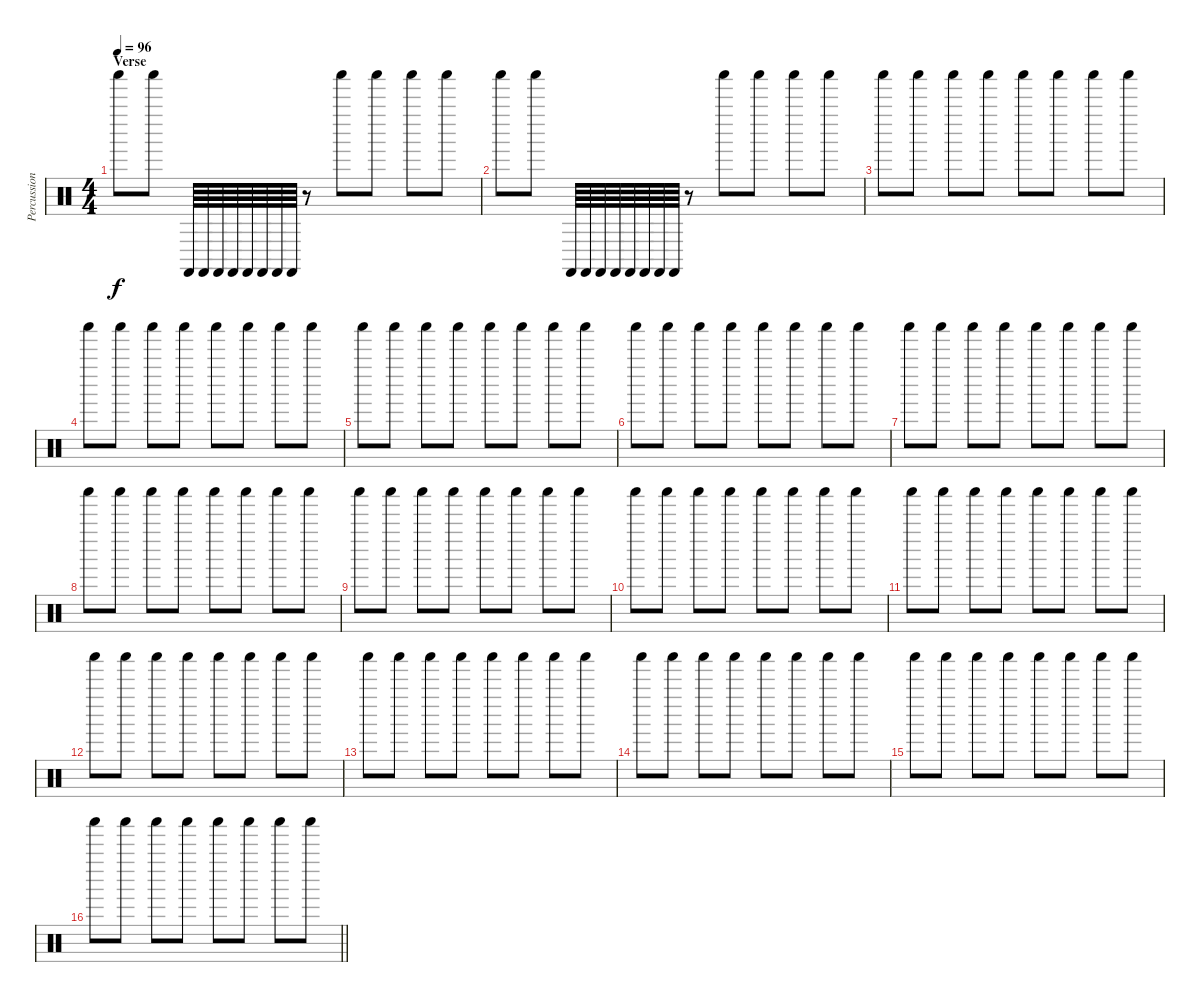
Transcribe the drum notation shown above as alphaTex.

\track ("Percussion" "Percussion") {instrument percussion}
\staff {score}
\articulation defaults
\ts (4 4)
\section ("" "Verse")
\tempo 96
\clef neutral
\ks c "Shaker (hit)".8{dy f} "Shaker (hit)".8 "Castanets (hit)".64 "Castanets (hit)".64 "Castanets (hit)".64 "Castanets (hit)".64 "Castanets (hit)".64 "Castanets (hit)".64 "Castanets (hit)".64 "Castanets (hit)".64
r.8 "Shaker (hit)".8 "Shaker (hit)".8 "Shaker (hit)".8 "Shaker (hit)".8 |
"Shaker (hit)".8 "Shaker (hit)".8 "Castanets (hit)".64 "Castanets (hit)".64 "Castanets (hit)".64 "Castanets (hit)".64 "Castanets (hit)".64 "Castanets (hit)".64 "Castanets (hit)".64 "Castanets (hit)".64 r.8 "Shaker (hit)".8 "Shaker (hit)".8 "Shaker (hit)".8 "Shaker (hit)".8 |
"Shaker (hit)".8 "Shaker (hit)".8 "Shaker (hit)".8 "Shaker (hit)".8 "Shaker (hit)".8 "Shaker (hit)".8 "Shaker (hit)".8 "Shaker (hit)".8 |
"Shaker (hit)".8 "Shaker (hit)".8 "Shaker (hit)".8 "Shaker (hit)".8 "Shaker (hit)".8 "Shaker (hit)".8 "Shaker (hit)".8 "Shaker (hit)".8 |
"Shaker (hit)".8 "Shaker (hit)".8 "Shaker (hit)".8 "Shaker (hit)".8 "Shaker (hit)".8 "Shaker (hit)".8 "Shaker (hit)".8 "Shaker (hit)".8 |
"Shaker (hit)".8 "Shaker (hit)".8 "Shaker (hit)".8 "Shaker (hit)".8 "Shaker (hit)".8 "Shaker (hit)".8 "Shaker (hit)".8 "Shaker (hit)".8 |
"Shaker (hit)".8 "Shaker (hit)".8 "Shaker (hit)".8 "Shaker (hit)".8 "Shaker (hit)".8 "Shaker (hit)".8 "Shaker (hit)".8 "Shaker (hit)".8 |
"Shaker (hit)".8 "Shaker (hit)".8 "Shaker (hit)".8 "Shaker (hit)".8 "Shaker (hit)".8 "Shaker (hit)".8 "Shaker (hit)".8 "Shaker (hit)".8 |
"Shaker (hit)".8 "Shaker (hit)".8 "Shaker (hit)".8 "Shaker (hit)".8 "Shaker (hit)".8 "Shaker (hit)".8 "Shaker (hit)".8 "Shaker (hit)".8 |
"Shaker (hit)".8 "Shaker (hit)".8 "Shaker (hit)".8 "Shaker (hit)".8 "Shaker (hit)".8 "Shaker (hit)".8 "Shaker (hit)".8 "Shaker (hit)".8 |
"Shaker (hit)".8 "Shaker (hit)".8 "Shaker (hit)".8 "Shaker (hit)".8 "Shaker (hit)".8 "Shaker (hit)".8 "Shaker (hit)".8 "Shaker (hit)".8 |
"Shaker (hit)".8 "Shaker (hit)".8 "Shaker (hit)".8 "Shaker (hit)".8 "Shaker (hit)".8 "Shaker (hit)".8 "Shaker (hit)".8 "Shaker (hit)".8 |
"Shaker (hit)".8 "Shaker (hit)".8 "Shaker (hit)".8 "Shaker (hit)".8 "Shaker (hit)".8 "Shaker (hit)".8 "Shaker (hit)".8 "Shaker (hit)".8 |
"Shaker (hit)".8 "Shaker (hit)".8 "Shaker (hit)".8 "Shaker (hit)".8 "Shaker (hit)".8 "Shaker (hit)".8 "Shaker (hit)".8 "Shaker (hit)".8 |
"Shaker (hit)".8 "Shaker (hit)".8 "Shaker (hit)".8 "Shaker (hit)".8 "Shaker (hit)".8 "Shaker (hit)".8 "Shaker (hit)".8 "Shaker (hit)".8 |
\barLineRight lightlight "Shaker (hit)".8 "Shaker (hit)".8 "Shaker (hit)".8 "Shaker (hit)".8 "Shaker (hit)".8 "Shaker (hit)".8 "Shaker (hit)".8 "Shaker (hit)".8
